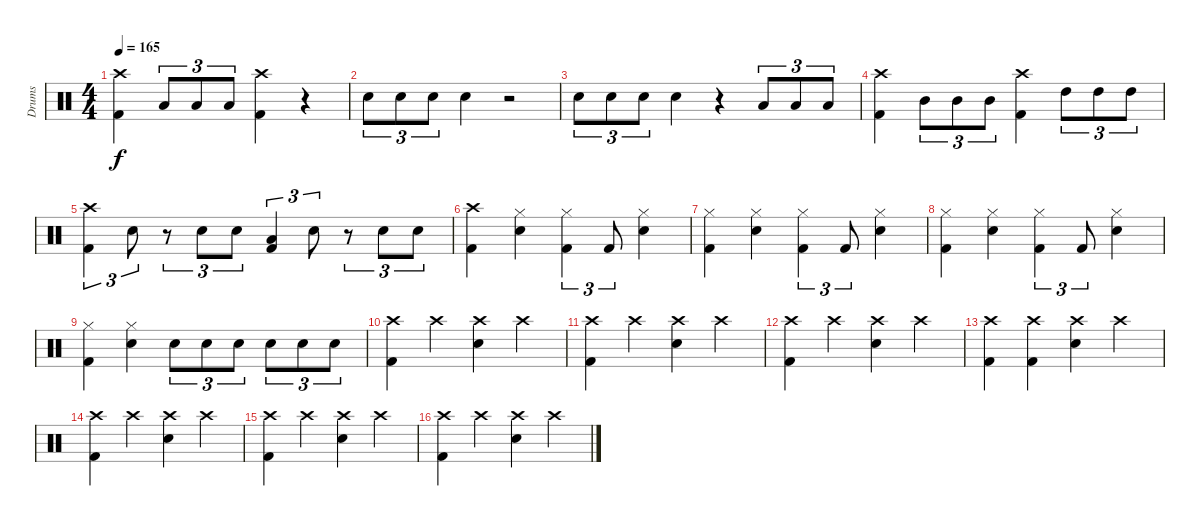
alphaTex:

\track ("Drums" "Drums") {instrument percussion}
\staff {score}
\articulation defaults
\ts (4 4)
\tempo 165
\clef neutral
\ks c
("Crash high (hit)" "Kick (hit) 2").4{dy f} "Low Floor Tom (hit)".8{tu (3 2)} "Low Floor Tom (hit)".8{tu (3 2)} "Low Floor Tom (hit)".8{tu (3 2)} ("Crash high (hit)" "Kick (hit) 2").4 r.4 |
"Electric Snare (hit)".8{tu (3 2)} "Electric Snare (hit)".8{tu (3 2)} "Electric Snare (hit)".8{tu (3 2)} "Electric Snare (hit)".4 r.2 |
"Electric Snare (hit)".8{tu (3 2)} "Electric Snare (hit)".8{tu (3 2)} "Electric Snare (hit)".8{tu (3 2)} "Electric Snare (hit)".4 r.4 "Low Floor Tom (hit)".8{tu (3 2)} "Low Floor Tom (hit)".8{tu (3 2)} "Low Floor Tom (hit)".8{tu (3 2)} |
("Crash high (hit)" "Kick (hit) 2").4 "Mid Tom (hit)".8{tu (3 2)} "Mid Tom (hit)".8{tu (3 2)} "Mid Tom (hit)".8{tu (3 2)} ("Crash high (hit)" "Kick (hit) 2").4 "High Tom (hit)".8{tu (3 2)} "High Tom (hit)".8{tu (3 2)} "High Tom (hit)".8{tu (3 2)} |
("Crash high (hit)" "Kick (hit) 2").4{tu (3 2)} "Electric Snare (hit)".8{tu (3 2)} r.8{tu (3 2)} "Electric Snare (hit)".8{tu (3 2)} "Electric Snare (hit)".8{tu (3 2)} ("Low Tom (hit)" "Kick (hit) 2").4{tu (3 2)} "Electric Snare (hit)".8{tu (3 2)} r.8{tu (3 2)} "Electric Snare (hit)".8{tu (3 2)} "Electric Snare (hit)".8{tu (3 2)} |
("Crash high (hit)" "Kick (hit) 2").4 ("Hi-Hat (closed)" "Electric Snare (hit)").4 ("Hi-Hat (closed)" "Kick (hit) 2").4{tu (3 2)} "Kick (hit) 2".8{tu (3 2)} ("Hi-Hat (closed)" "Electric Snare (hit)").4 |
("Hi-Hat (closed)" "Kick (hit) 2").4 ("Hi-Hat (closed)" "Electric Snare (hit)").4 ("Hi-Hat (closed)" "Kick (hit) 2").4{tu (3 2)} "Kick (hit) 2".8{tu (3 2)} ("Hi-Hat (closed)" "Electric Snare (hit)").4 |
("Hi-Hat (closed)" "Kick (hit) 2").4 ("Hi-Hat (closed)" "Electric Snare (hit)").4 ("Hi-Hat (closed)" "Kick (hit) 2").4{tu (3 2)} "Kick (hit) 2".8{tu (3 2)} ("Hi-Hat (closed)" "Electric Snare (hit)").4 |
("Hi-Hat (closed)" "Kick (hit) 2").4 ("Hi-Hat (closed)" "Electric Snare (hit)").4 "Electric Snare (hit)".8{tu (3 2)} "Electric Snare (hit)".8{tu (3 2)} "Electric Snare (hit)".8{tu (3 2)} "Electric Snare (hit)".8{tu (3 2)} "Electric Snare (hit)".8{tu (3 2)} "Electric Snare (hit)".8{tu (3 2)} |
("Crash high (hit)" "Kick (hit) 2").4 "Crash high (hit)".4 ("Crash high (hit)" "Electric Snare (hit)").4 "Crash high (hit)".4 |
("Crash high (hit)" "Kick (hit) 2").4 "Crash high (hit)".4 ("Crash high (hit)" "Electric Snare (hit)").4 "Crash high (hit)".4 |
("Crash high (hit)" "Kick (hit) 2").4 "Crash high (hit)".4 ("Crash high (hit)" "Electric Snare (hit)").4 "Crash high (hit)".4 |
("Crash high (hit)" "Kick (hit) 2").4 ("Crash high (hit)" "Kick (hit) 2").4 ("Crash high (hit)" "Electric Snare (hit)").4 "Crash high (hit)".4 |
("Crash high (hit)" "Kick (hit) 2").4 "Crash high (hit)".4 ("Crash high (hit)" "Electric Snare (hit)").4 "Crash high (hit)".4 |
("Crash high (hit)" "Kick (hit) 2").4 "Crash high (hit)".4 ("Crash high (hit)" "Electric Snare (hit)").4 "Crash high (hit)".4 |
("Crash high (hit)" "Kick (hit) 2").4 "Crash high (hit)".4 ("Crash high (hit)" "Electric Snare (hit)").4 "Crash high (hit)".4
